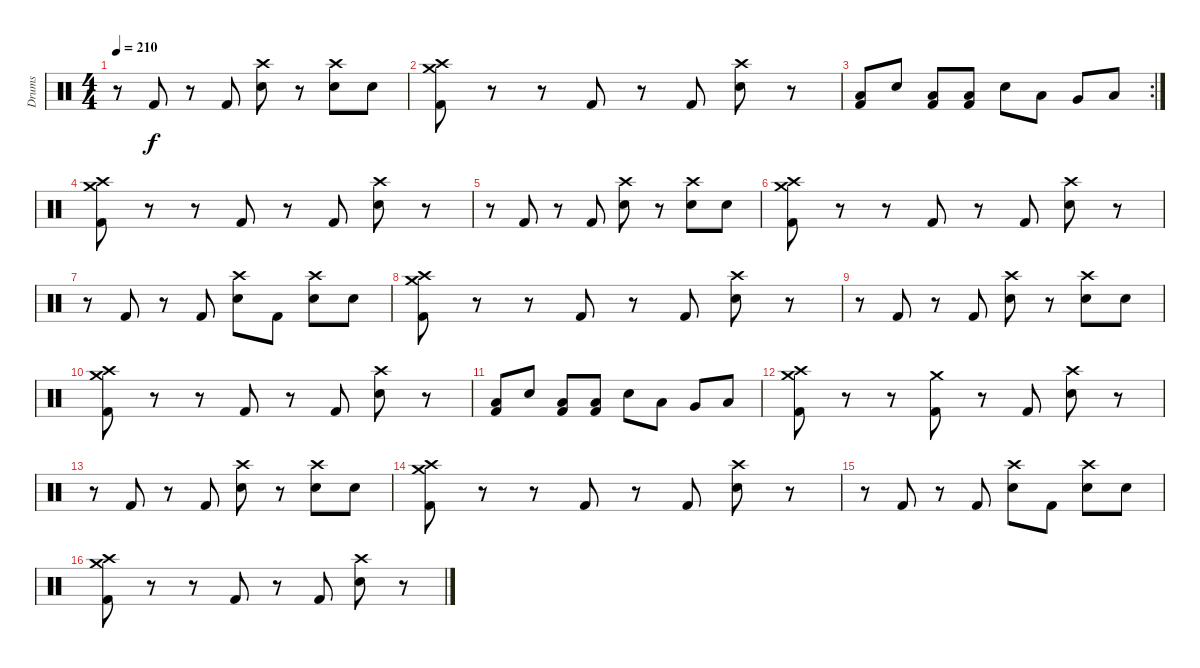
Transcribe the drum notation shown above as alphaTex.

\track ("Drums" "Drums") {instrument percussion}
\staff {score}
\articulation defaults
\ts (4 4)
\tempo 210
\clef neutral
\ks c
r.8{dy f} "Kick (hit) 2".8 r.8 "Kick (hit) 2".8 ("Crash high (hit)" "Electric Snare (hit)").8 r.8 ("Crash high (hit)" "Electric Snare (hit)").8 "Electric Snare (hit)".8 |
("Crash high (hit)" "Crash medium (hit)" "Kick (hit) 2").8 r.8 r.8 "Kick (hit) 2".8 r.8 "Kick (hit) 2".8 ("Crash high (hit)" "Electric Snare (hit)").8 r.8 |
\rc 2
("Low Floor Tom (hit)" "Kick (hit) 2").8 "Electric Snare (hit)".8 ("Low Floor Tom (hit)" "Kick (hit) 2").8 ("Low Floor Tom (hit)" "Kick (hit) 2").8 "Electric Snare (hit)".8 "Low Tom (hit)".8 "Very Low Tom (hit)".8 "Low Floor Tom (hit)".8 |
("Crash high (hit)" "Crash medium (hit)" "Kick (hit) 2").8 r.8 r.8 "Kick (hit) 2".8 r.8 "Kick (hit) 2".8 ("Crash high (hit)" "Electric Snare (hit)").8 r.8 |
r.8 "Kick (hit) 2".8 r.8 "Kick (hit) 2".8 ("Crash high (hit)" "Electric Snare (hit)").8 r.8 ("Crash high (hit)" "Electric Snare (hit)").8 "Electric Snare (hit)".8 |
("Crash high (hit)" "Crash medium (hit)" "Kick (hit) 2").8 r.8 r.8 "Kick (hit) 2".8 r.8 "Kick (hit) 2".8 ("Crash high (hit)" "Electric Snare (hit)").8 r.8 |
r.8 "Kick (hit) 2".8 r.8 "Kick (hit) 2".8 ("Crash high (hit)" "Electric Snare (hit)").8 "Kick (hit) 2".8 ("Crash high (hit)" "Electric Snare (hit)").8 "Electric Snare (hit)".8 |
("Crash high (hit)" "Crash medium (hit)" "Kick (hit) 2").8 r.8 r.8 "Kick (hit) 2".8 r.8 "Kick (hit) 2".8 ("Crash high (hit)" "Electric Snare (hit)").8 r.8 |
r.8 "Kick (hit) 2".8 r.8 "Kick (hit) 2".8 ("Crash high (hit)" "Electric Snare (hit)").8 r.8 ("Crash high (hit)" "Electric Snare (hit)").8 "Electric Snare (hit)".8 |
("Crash high (hit)" "Crash medium (hit)" "Kick (hit) 2").8 r.8 r.8 "Kick (hit) 2".8 r.8 "Kick (hit) 2".8 ("Crash high (hit)" "Electric Snare (hit)").8 r.8 |
("Low Floor Tom (hit)" "Kick (hit) 2").8 "Electric Snare (hit)".8 ("Low Floor Tom (hit)" "Kick (hit) 2").8 ("Low Floor Tom (hit)" "Kick (hit) 2").8 "Electric Snare (hit)".8 "Low Tom (hit)".8 "Very Low Tom (hit)".8 "Low Floor Tom (hit)".8 |
("Crash high (hit)" "Crash medium (hit)" "Kick (hit) 2").8 r.8 r.8 ("Crash medium (hit)" "Kick (hit) 2").8 r.8 "Kick (hit) 2".8 ("Crash high (hit)" "Electric Snare (hit)").8 r.8 |
r.8 "Kick (hit) 2".8 r.8 "Kick (hit) 2".8 ("Crash high (hit)" "Electric Snare (hit)").8 r.8 ("Crash high (hit)" "Electric Snare (hit)").8 "Electric Snare (hit)".8 |
("Crash high (hit)" "Crash medium (hit)" "Kick (hit) 2").8 r.8 r.8 "Kick (hit) 2".8 r.8 "Kick (hit) 2".8 ("Crash high (hit)" "Electric Snare (hit)").8 r.8 |
r.8 "Kick (hit) 2".8 r.8 "Kick (hit) 2".8 ("Crash high (hit)" "Electric Snare (hit)").8 "Kick (hit) 2".8 ("Crash high (hit)" "Electric Snare (hit)").8 "Electric Snare (hit)".8 |
("Crash high (hit)" "Crash medium (hit)" "Kick (hit) 2").8 r.8 r.8 "Kick (hit) 2".8 r.8 "Kick (hit) 2".8 ("Crash high (hit)" "Electric Snare (hit)").8 r.8
